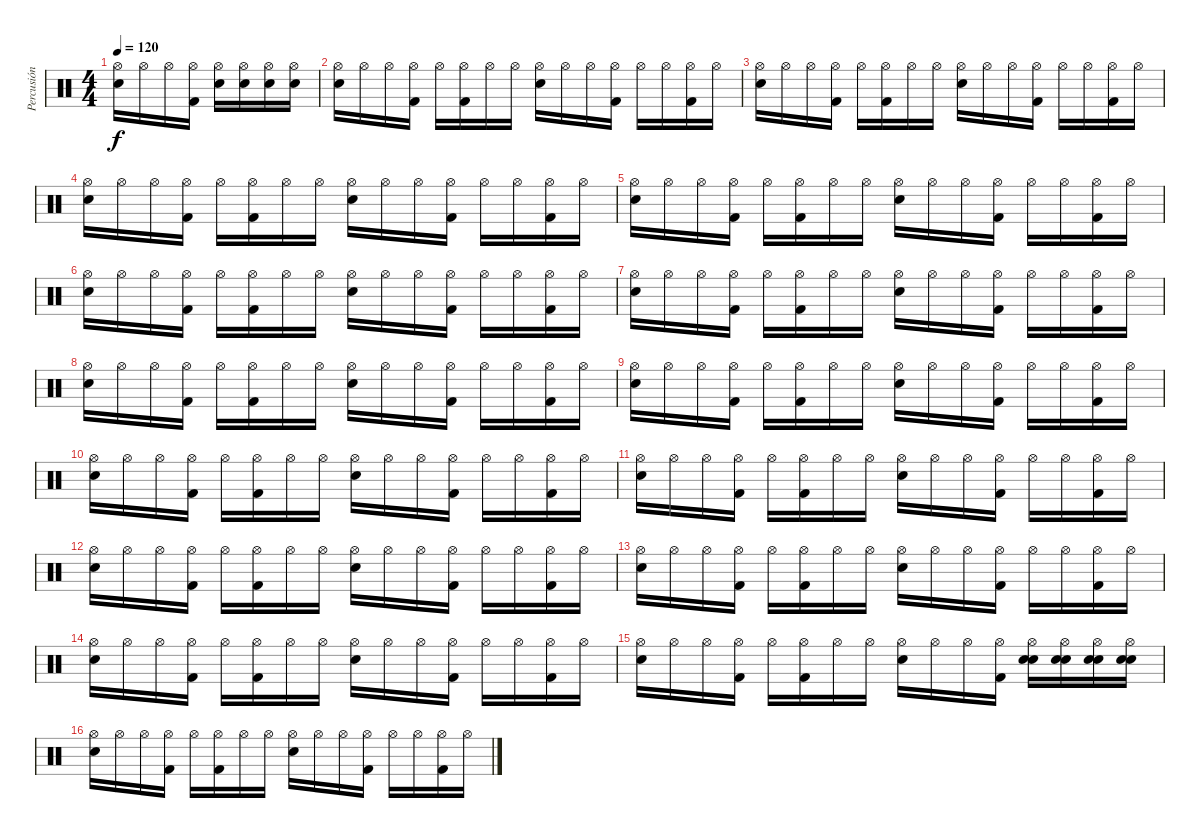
\track ("Percusión" "Percusión") {instrument percussion}
\staff {score}
\articulation defaults
\ts (4 4)
\tempo 120
\clef neutral
\ks c
("Hi-Hat (open)" "Snare (hit) 2").16{dy f} "Hi-Hat (open)".16 "Hi-Hat (open)".16 ("Hi-Hat (open)" "Kick (hit) 2").16 ("Hi-Hat (open)" "Snare (hit) 2").16 ("Hi-Hat (open)" "Snare (hit) 2").16 ("Hi-Hat (open)" "Snare (hit) 2").16 ("Hi-Hat (open)" "Snare (hit) 2").16 |
("Hi-Hat (open)" "Snare (hit) 2").16 "Hi-Hat (open)".16 "Hi-Hat (open)".16 ("Hi-Hat (open)" "Kick (hit) 2").16 "Hi-Hat (open)".16 ("Hi-Hat (open)" "Kick (hit) 2").16 "Hi-Hat (open)".16 "Hi-Hat (open)".16 ("Hi-Hat (open)" "Snare (hit) 2").16 "Hi-Hat (open)".16 "Hi-Hat (open)".16 ("Hi-Hat (open)" "Kick (hit) 2").16 "Hi-Hat (open)".16 "Hi-Hat (open)".16 ("Hi-Hat (open)" "Kick (hit) 2").16 "Hi-Hat (open)".16 |
("Hi-Hat (open)" "Snare (hit) 2").16 "Hi-Hat (open)".16 "Hi-Hat (open)".16 ("Hi-Hat (open)" "Kick (hit) 2").16 "Hi-Hat (open)".16 ("Hi-Hat (open)" "Kick (hit) 2").16 "Hi-Hat (open)".16 "Hi-Hat (open)".16 ("Hi-Hat (open)" "Snare (hit) 2").16 "Hi-Hat (open)".16 "Hi-Hat (open)".16 ("Hi-Hat (open)" "Kick (hit) 2").16 "Hi-Hat (open)".16 "Hi-Hat (open)".16 ("Hi-Hat (open)" "Kick (hit) 2").16 "Hi-Hat (open)".16 |
("Hi-Hat (open)" "Snare (hit) 2").16 "Hi-Hat (open)".16 "Hi-Hat (open)".16 ("Hi-Hat (open)" "Kick (hit) 2").16 "Hi-Hat (open)".16 ("Hi-Hat (open)" "Kick (hit) 2").16 "Hi-Hat (open)".16 "Hi-Hat (open)".16 ("Hi-Hat (open)" "Snare (hit) 2").16 "Hi-Hat (open)".16 "Hi-Hat (open)".16 ("Hi-Hat (open)" "Kick (hit) 2").16 "Hi-Hat (open)".16 "Hi-Hat (open)".16 ("Hi-Hat (open)" "Kick (hit) 2").16 "Hi-Hat (open)".16 |
("Hi-Hat (open)" "Snare (hit) 2").16 "Hi-Hat (open)".16 "Hi-Hat (open)".16 ("Hi-Hat (open)" "Kick (hit) 2").16 "Hi-Hat (open)".16 ("Hi-Hat (open)" "Kick (hit) 2").16 "Hi-Hat (open)".16 "Hi-Hat (open)".16 ("Hi-Hat (open)" "Snare (hit) 2").16 "Hi-Hat (open)".16 "Hi-Hat (open)".16 ("Hi-Hat (open)" "Kick (hit) 2").16 "Hi-Hat (open)".16 "Hi-Hat (open)".16 ("Hi-Hat (open)" "Kick (hit) 2").16 "Hi-Hat (open)".16 |
("Hi-Hat (open)" "Snare (hit) 2").16 "Hi-Hat (open)".16 "Hi-Hat (open)".16 ("Hi-Hat (open)" "Kick (hit) 2").16 "Hi-Hat (open)".16 ("Hi-Hat (open)" "Kick (hit) 2").16 "Hi-Hat (open)".16 "Hi-Hat (open)".16 ("Hi-Hat (open)" "Snare (hit) 2").16 "Hi-Hat (open)".16 "Hi-Hat (open)".16 ("Hi-Hat (open)" "Kick (hit) 2").16 "Hi-Hat (open)".16 "Hi-Hat (open)".16 ("Hi-Hat (open)" "Kick (hit) 2").16 "Hi-Hat (open)".16 |
("Hi-Hat (open)" "Snare (hit) 2").16 "Hi-Hat (open)".16 "Hi-Hat (open)".16 ("Hi-Hat (open)" "Kick (hit) 2").16 "Hi-Hat (open)".16 ("Hi-Hat (open)" "Kick (hit) 2").16 "Hi-Hat (open)".16 "Hi-Hat (open)".16 ("Hi-Hat (open)" "Snare (hit) 2").16 "Hi-Hat (open)".16 "Hi-Hat (open)".16 ("Hi-Hat (open)" "Kick (hit) 2").16 "Hi-Hat (open)".16 "Hi-Hat (open)".16 ("Hi-Hat (open)" "Kick (hit) 2").16 "Hi-Hat (open)".16 |
("Hi-Hat (open)" "Snare (hit) 2").16 "Hi-Hat (open)".16 "Hi-Hat (open)".16 ("Hi-Hat (open)" "Kick (hit) 2").16 "Hi-Hat (open)".16 ("Hi-Hat (open)" "Kick (hit) 2").16 "Hi-Hat (open)".16 "Hi-Hat (open)".16 ("Hi-Hat (open)" "Snare (hit) 2").16 "Hi-Hat (open)".16 "Hi-Hat (open)".16 ("Hi-Hat (open)" "Kick (hit) 2").16 "Hi-Hat (open)".16 "Hi-Hat (open)".16 ("Hi-Hat (open)" "Kick (hit) 2").16 "Hi-Hat (open)".16 |
("Hi-Hat (open)" "Snare (hit) 2").16 "Hi-Hat (open)".16 "Hi-Hat (open)".16 ("Hi-Hat (open)" "Kick (hit) 2").16 "Hi-Hat (open)".16 ("Hi-Hat (open)" "Kick (hit) 2").16 "Hi-Hat (open)".16 "Hi-Hat (open)".16 ("Hi-Hat (open)" "Snare (hit) 2").16 "Hi-Hat (open)".16 "Hi-Hat (open)".16 ("Hi-Hat (open)" "Kick (hit) 2").16 "Hi-Hat (open)".16 "Hi-Hat (open)".16 ("Hi-Hat (open)" "Kick (hit) 2").16 "Hi-Hat (open)".16 |
("Hi-Hat (open)" "Snare (hit) 2").16 "Hi-Hat (open)".16 "Hi-Hat (open)".16 ("Hi-Hat (open)" "Kick (hit) 2").16 "Hi-Hat (open)".16 ("Hi-Hat (open)" "Kick (hit) 2").16 "Hi-Hat (open)".16 "Hi-Hat (open)".16 ("Hi-Hat (open)" "Snare (hit) 2").16 "Hi-Hat (open)".16 "Hi-Hat (open)".16 ("Hi-Hat (open)" "Kick (hit) 2").16 "Hi-Hat (open)".16 "Hi-Hat (open)".16 ("Hi-Hat (open)" "Kick (hit) 2").16 "Hi-Hat (open)".16 |
("Hi-Hat (open)" "Snare (hit) 2").16 "Hi-Hat (open)".16 "Hi-Hat (open)".16 ("Hi-Hat (open)" "Kick (hit) 2").16 "Hi-Hat (open)".16 ("Hi-Hat (open)" "Kick (hit) 2").16 "Hi-Hat (open)".16 "Hi-Hat (open)".16 ("Hi-Hat (open)" "Snare (hit) 2").16 "Hi-Hat (open)".16 "Hi-Hat (open)".16 ("Hi-Hat (open)" "Kick (hit) 2").16 "Hi-Hat (open)".16 "Hi-Hat (open)".16 ("Hi-Hat (open)" "Kick (hit) 2").16 "Hi-Hat (open)".16 |
("Hi-Hat (open)" "Snare (hit) 2").16 "Hi-Hat (open)".16 "Hi-Hat (open)".16 ("Hi-Hat (open)" "Kick (hit) 2").16 "Hi-Hat (open)".16 ("Hi-Hat (open)" "Kick (hit) 2").16 "Hi-Hat (open)".16 "Hi-Hat (open)".16 ("Hi-Hat (open)" "Snare (hit) 2").16 "Hi-Hat (open)".16 "Hi-Hat (open)".16 ("Hi-Hat (open)" "Kick (hit) 2").16 "Hi-Hat (open)".16 "Hi-Hat (open)".16 ("Hi-Hat (open)" "Kick (hit) 2").16 "Hi-Hat (open)".16 |
("Hi-Hat (open)" "Snare (hit) 2").16 "Hi-Hat (open)".16 "Hi-Hat (open)".16 ("Hi-Hat (open)" "Kick (hit) 2").16 "Hi-Hat (open)".16 ("Hi-Hat (open)" "Kick (hit) 2").16 "Hi-Hat (open)".16 "Hi-Hat (open)".16 ("Hi-Hat (open)" "Snare (hit) 2").16 "Hi-Hat (open)".16 "Hi-Hat (open)".16 ("Hi-Hat (open)" "Kick (hit) 2").16 "Hi-Hat (open)".16 "Hi-Hat (open)".16 ("Hi-Hat (open)" "Kick (hit) 2").16 "Hi-Hat (open)".16 |
("Hi-Hat (open)" "Snare (hit) 2").16 "Hi-Hat (open)".16 "Hi-Hat (open)".16 ("Hi-Hat (open)" "Kick (hit) 2").16 "Hi-Hat (open)".16 ("Hi-Hat (open)" "Kick (hit) 2").16 "Hi-Hat (open)".16 "Hi-Hat (open)".16 ("Hi-Hat (open)" "Snare (hit) 2").16 "Hi-Hat (open)".16 "Hi-Hat (open)".16 ("Hi-Hat (open)" "Kick (hit) 2").16 "Hi-Hat (open)".16 "Hi-Hat (open)".16 ("Hi-Hat (open)" "Kick (hit) 2").16 "Hi-Hat (open)".16 |
("Hi-Hat (open)" "Snare (hit) 2").16 "Hi-Hat (open)".16 "Hi-Hat (open)".16 ("Hi-Hat (open)" "Kick (hit) 2").16 "Hi-Hat (open)".16 ("Hi-Hat (open)" "Kick (hit) 2").16 "Hi-Hat (open)".16 "Hi-Hat (open)".16 ("Hi-Hat (open)" "Snare (hit) 2").16 "Hi-Hat (open)".16 "Hi-Hat (open)".16 ("Hi-Hat (open)" "Kick (hit) 2").16 ("Hi-Hat (open)" "Snare (hit) 2" "Snare (hit) 2").16 ("Hi-Hat (open)" "Snare (hit) 2" "Snare (hit) 2").16 ("Hi-Hat (open)" "Snare (hit) 2" "Snare (hit) 2").16 ("Hi-Hat (open)" "Snare (hit) 2" "Snare (hit) 2").16 |
("Hi-Hat (open)" "Snare (hit) 2").16 "Hi-Hat (open)".16 "Hi-Hat (open)".16 ("Hi-Hat (open)" "Kick (hit) 2").16 "Hi-Hat (open)".16 ("Hi-Hat (open)" "Kick (hit) 2").16 "Hi-Hat (open)".16 "Hi-Hat (open)".16 ("Hi-Hat (open)" "Snare (hit) 2").16 "Hi-Hat (open)".16 "Hi-Hat (open)".16 ("Hi-Hat (open)" "Kick (hit) 2").16 "Hi-Hat (open)".16 "Hi-Hat (open)".16 ("Hi-Hat (open)" "Kick (hit) 2").16 "Hi-Hat (open)".16
